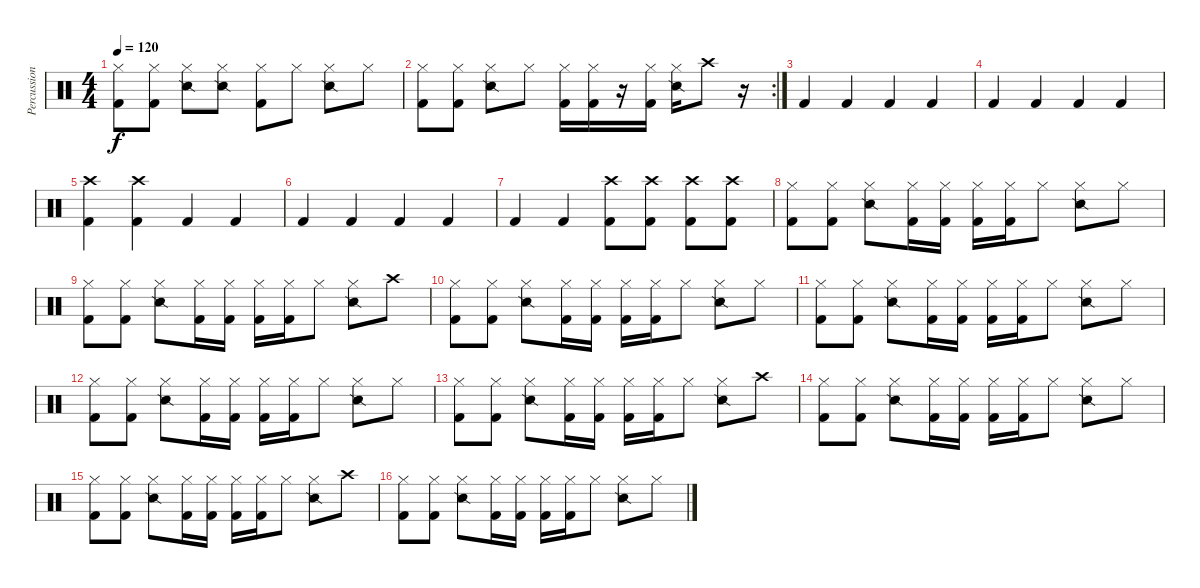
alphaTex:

\track ("Percussion" "Percussion") {instrument percussion}
\staff {score}
\articulation defaults
\ts (4 4)
\tempo 120
\clef neutral
\ks c
("Hi-Hat (closed)" "Kick (hit) 2").8{dy f} ("Hi-Hat (closed)" "Kick (hit) 2").8 ("Hi-Hat (closed)" "Snare (side stick) 2").8 ("Hi-Hat (closed)" "Snare (side stick) 2").8 ("Hi-Hat (closed)" "Kick (hit) 2").8 "Hi-Hat (closed)".8 ("Hi-Hat (closed)" "Snare (side stick) 2").8 "Hi-Hat (closed)".8 |
\rc 2
("Hi-Hat (closed)" "Kick (hit) 2").8 ("Hi-Hat (closed)" "Kick (hit) 2").8 ("Hi-Hat (closed)" "Snare (side stick) 2").8 "Hi-Hat (closed)".8 ("Hi-Hat (closed)" "Kick (hit) 2").16 ("Hi-Hat (closed)" "Kick (hit) 2").16 r.16 ("Hi-Hat (closed)" "Kick (hit) 2").16 ("Hi-Hat (closed)" "Snare (side stick) 2").16 "Crash high (hit)".8 r.16 |
"Kick (hit) 2".4 "Kick (hit) 2".4 "Kick (hit) 2".4 "Kick (hit) 2".4 |
"Kick (hit) 2".4 "Kick (hit) 2".4 "Kick (hit) 2".4 "Kick (hit) 2".4 |
("Crash high (hit)" "Kick (hit) 2").4 ("Crash high (hit)" "Kick (hit) 2").4 "Kick (hit) 2".4 "Kick (hit) 2".4 |
"Kick (hit) 2".4 "Kick (hit) 2".4 "Kick (hit) 2".4 "Kick (hit) 2".4 |
"Kick (hit) 2".4 "Kick (hit) 2".4 ("Crash high (hit)" "Kick (hit) 2").8 ("Crash high (hit)" "Kick (hit) 2").8 ("Crash high (hit)" "Kick (hit) 2").8 ("Crash high (hit)" "Kick (hit) 2").8 |
("Hi-Hat (closed)" "Kick (hit) 2").8 ("Hi-Hat (closed)" "Kick (hit) 2").8 ("Hi-Hat (closed)" "Snare (side stick) 2").8 ("Hi-Hat (closed)" "Kick (hit) 2").16 ("Hi-Hat (closed)" "Kick (hit) 2").16 ("Hi-Hat (closed)" "Kick (hit) 2").16 ("Hi-Hat (closed)" "Kick (hit) 2").16 "Hi-Hat (closed)".8 ("Hi-Hat (closed)" "Snare (side stick) 2").8 "Hi-Hat (closed)".8 |
("Hi-Hat (closed)" "Kick (hit) 2").8 ("Hi-Hat (closed)" "Kick (hit) 2").8 ("Hi-Hat (closed)" "Snare (side stick) 2").8 ("Hi-Hat (closed)" "Kick (hit) 2").16 ("Hi-Hat (closed)" "Kick (hit) 2").16 ("Hi-Hat (closed)" "Kick (hit) 2").16 ("Hi-Hat (closed)" "Kick (hit) 2").16 "Hi-Hat (closed)".8 ("Hi-Hat (closed)" "Snare (side stick) 2").8 "Crash high (hit)".8 |
("Hi-Hat (closed)" "Kick (hit) 2").8 ("Hi-Hat (closed)" "Kick (hit) 2").8 ("Hi-Hat (closed)" "Snare (side stick) 2").8 ("Hi-Hat (closed)" "Kick (hit) 2").16 ("Hi-Hat (closed)" "Kick (hit) 2").16 ("Hi-Hat (closed)" "Kick (hit) 2").16 ("Hi-Hat (closed)" "Kick (hit) 2").16 "Hi-Hat (closed)".8 ("Hi-Hat (closed)" "Snare (side stick) 2").8 "Hi-Hat (closed)".8 |
("Hi-Hat (closed)" "Kick (hit) 2").8 ("Hi-Hat (closed)" "Kick (hit) 2").8 ("Hi-Hat (closed)" "Snare (side stick) 2").8 ("Hi-Hat (closed)" "Kick (hit) 2").16 ("Hi-Hat (closed)" "Kick (hit) 2").16 ("Hi-Hat (closed)" "Kick (hit) 2").16 ("Hi-Hat (closed)" "Kick (hit) 2").16 "Hi-Hat (closed)".8 ("Hi-Hat (closed)" "Snare (side stick) 2").8 "Hi-Hat (closed)".8 |
("Hi-Hat (closed)" "Kick (hit) 2").8 ("Hi-Hat (closed)" "Kick (hit) 2").8 ("Hi-Hat (closed)" "Snare (side stick) 2").8 ("Hi-Hat (closed)" "Kick (hit) 2").16 ("Hi-Hat (closed)" "Kick (hit) 2").16 ("Hi-Hat (closed)" "Kick (hit) 2").16 ("Hi-Hat (closed)" "Kick (hit) 2").16 "Hi-Hat (closed)".8 ("Hi-Hat (closed)" "Snare (side stick) 2").8 "Hi-Hat (closed)".8 |
("Hi-Hat (closed)" "Kick (hit) 2").8 ("Hi-Hat (closed)" "Kick (hit) 2").8 ("Hi-Hat (closed)" "Snare (side stick) 2").8 ("Hi-Hat (closed)" "Kick (hit) 2").16 ("Hi-Hat (closed)" "Kick (hit) 2").16 ("Hi-Hat (closed)" "Kick (hit) 2").16 ("Hi-Hat (closed)" "Kick (hit) 2").16 "Hi-Hat (closed)".8 ("Hi-Hat (closed)" "Snare (side stick) 2").8 "Crash high (hit)".8 |
("Hi-Hat (closed)" "Kick (hit) 2").8 ("Hi-Hat (closed)" "Kick (hit) 2").8 ("Hi-Hat (closed)" "Snare (side stick) 2").8 ("Hi-Hat (closed)" "Kick (hit) 2").16 ("Hi-Hat (closed)" "Kick (hit) 2").16 ("Hi-Hat (closed)" "Kick (hit) 2").16 ("Hi-Hat (closed)" "Kick (hit) 2").16 "Hi-Hat (closed)".8 ("Hi-Hat (closed)" "Snare (side stick) 2").8 "Hi-Hat (closed)".8 |
("Hi-Hat (closed)" "Kick (hit) 2").8 ("Hi-Hat (closed)" "Kick (hit) 2").8 ("Hi-Hat (closed)" "Snare (side stick) 2").8 ("Hi-Hat (closed)" "Kick (hit) 2").16 ("Hi-Hat (closed)" "Kick (hit) 2").16 ("Hi-Hat (closed)" "Kick (hit) 2").16 ("Hi-Hat (closed)" "Kick (hit) 2").16 "Hi-Hat (closed)".8 ("Hi-Hat (closed)" "Snare (side stick) 2").8 "Crash high (hit)".8 |
("Hi-Hat (closed)" "Kick (hit) 2").8 ("Hi-Hat (closed)" "Kick (hit) 2").8 ("Hi-Hat (closed)" "Snare (side stick) 2").8 ("Hi-Hat (closed)" "Kick (hit) 2").16 ("Hi-Hat (closed)" "Kick (hit) 2").16 ("Hi-Hat (closed)" "Kick (hit) 2").16 ("Hi-Hat (closed)" "Kick (hit) 2").16 "Hi-Hat (closed)".8 ("Hi-Hat (closed)" "Snare (side stick) 2").8 "Hi-Hat (closed)".8
